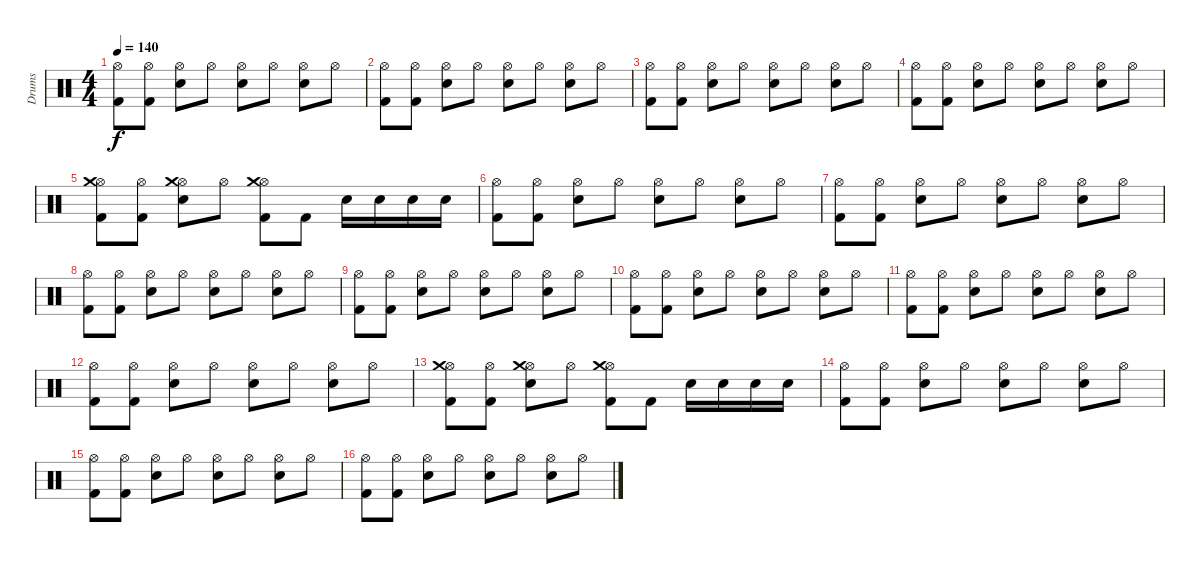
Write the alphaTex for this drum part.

\track ("Drums" "Drums") {instrument percussion}
\staff {score}
\articulation defaults
\ts (4 4)
\tempo 140
\clef neutral
\ks c
("Hi-Hat (open)" "Kick (hit) 2").8{dy f} ("Hi-Hat (open)" "Kick (hit) 2").8 ("Hi-Hat (open)" "Snare (hit) 2").8 "Hi-Hat (open)".8 ("Snare (hit) 2" "Hi-Hat (open)").8 "Hi-Hat (open)".8 ("Snare (hit) 2" "Hi-Hat (open)").8 "Hi-Hat (open)".8 |
("Hi-Hat (open)" "Kick (hit) 2").8 ("Hi-Hat (open)" "Kick (hit) 2").8 ("Hi-Hat (open)" "Snare (hit) 2").8 "Hi-Hat (open)".8 ("Snare (hit) 2" "Hi-Hat (open)").8 "Hi-Hat (open)".8 ("Snare (hit) 2" "Hi-Hat (open)").8 "Hi-Hat (open)".8 |
("Hi-Hat (open)" "Kick (hit) 2").8 ("Hi-Hat (open)" "Kick (hit) 2").8 ("Hi-Hat (open)" "Snare (hit) 2").8 "Hi-Hat (open)".8 ("Snare (hit) 2" "Hi-Hat (open)").8 "Hi-Hat (open)".8 ("Snare (hit) 2" "Hi-Hat (open)").8 "Hi-Hat (open)".8 |
("Hi-Hat (open)" "Kick (hit) 2").8 ("Hi-Hat (open)" "Kick (hit) 2").8 ("Hi-Hat (open)" "Snare (hit) 2").8 "Hi-Hat (open)".8 ("Snare (hit) 2" "Hi-Hat (open)").8 "Hi-Hat (open)".8 ("Snare (hit) 2" "Hi-Hat (open)").8 "Hi-Hat (open)".8 |
("Hi-Hat (open)" "Crash medium (hit)" "Kick (hit) 2").8 ("Hi-Hat (open)" "Kick (hit) 2").8 ("Snare (hit) 2" "Hi-Hat (open)" "Crash medium (hit)").8 "Hi-Hat (open)".8 ("Hi-Hat (open)" "Crash medium (hit)" "Kick (hit) 2").8 "Kick (hit) 2".8 "Snare (hit) 2".16 "Snare (hit) 2".16 "Snare (hit) 2".16 "Snare (hit) 2".16 |
("Hi-Hat (open)" "Kick (hit) 2").8 ("Hi-Hat (open)" "Kick (hit) 2").8 ("Hi-Hat (open)" "Snare (hit) 2").8 "Hi-Hat (open)".8 ("Snare (hit) 2" "Hi-Hat (open)").8 "Hi-Hat (open)".8 ("Snare (hit) 2" "Hi-Hat (open)").8 "Hi-Hat (open)".8 |
("Hi-Hat (open)" "Kick (hit) 2").8 ("Hi-Hat (open)" "Kick (hit) 2").8 ("Hi-Hat (open)" "Snare (hit) 2").8 "Hi-Hat (open)".8 ("Snare (hit) 2" "Hi-Hat (open)").8 "Hi-Hat (open)".8 ("Snare (hit) 2" "Hi-Hat (open)").8 "Hi-Hat (open)".8 |
("Hi-Hat (open)" "Kick (hit) 2").8 ("Hi-Hat (open)" "Kick (hit) 2").8 ("Hi-Hat (open)" "Snare (hit) 2").8 "Hi-Hat (open)".8 ("Snare (hit) 2" "Hi-Hat (open)").8 "Hi-Hat (open)".8 ("Snare (hit) 2" "Hi-Hat (open)").8 "Hi-Hat (open)".8 |
("Hi-Hat (open)" "Kick (hit) 2").8 ("Hi-Hat (open)" "Kick (hit) 2").8 ("Hi-Hat (open)" "Snare (hit) 2").8 "Hi-Hat (open)".8 ("Snare (hit) 2" "Hi-Hat (open)").8 "Hi-Hat (open)".8 ("Snare (hit) 2" "Hi-Hat (open)").8 "Hi-Hat (open)".8 |
("Hi-Hat (open)" "Kick (hit) 2").8 ("Hi-Hat (open)" "Kick (hit) 2").8 ("Hi-Hat (open)" "Snare (hit) 2").8 "Hi-Hat (open)".8 ("Snare (hit) 2" "Hi-Hat (open)").8 "Hi-Hat (open)".8 ("Snare (hit) 2" "Hi-Hat (open)").8 "Hi-Hat (open)".8 |
("Hi-Hat (open)" "Kick (hit) 2").8 ("Hi-Hat (open)" "Kick (hit) 2").8 ("Hi-Hat (open)" "Snare (hit) 2").8 "Hi-Hat (open)".8 ("Snare (hit) 2" "Hi-Hat (open)").8 "Hi-Hat (open)".8 ("Snare (hit) 2" "Hi-Hat (open)").8 "Hi-Hat (open)".8 |
("Hi-Hat (open)" "Kick (hit) 2").8 ("Hi-Hat (open)" "Kick (hit) 2").8 ("Hi-Hat (open)" "Snare (hit) 2").8 "Hi-Hat (open)".8 ("Snare (hit) 2" "Hi-Hat (open)").8 "Hi-Hat (open)".8 ("Snare (hit) 2" "Hi-Hat (open)").8 "Hi-Hat (open)".8 |
("Hi-Hat (open)" "Crash medium (hit)" "Kick (hit) 2").8 ("Hi-Hat (open)" "Kick (hit) 2").8 ("Snare (hit) 2" "Hi-Hat (open)" "Crash medium (hit)").8 "Hi-Hat (open)".8 ("Hi-Hat (open)" "Crash medium (hit)" "Kick (hit) 2").8 "Kick (hit) 2".8 "Snare (hit) 2".16 "Snare (hit) 2".16 "Snare (hit) 2".16 "Snare (hit) 2".16 |
("Hi-Hat (open)" "Kick (hit) 2").8 ("Hi-Hat (open)" "Kick (hit) 2").8 ("Hi-Hat (open)" "Snare (hit) 2").8 "Hi-Hat (open)".8 ("Snare (hit) 2" "Hi-Hat (open)").8 "Hi-Hat (open)".8 ("Snare (hit) 2" "Hi-Hat (open)").8 "Hi-Hat (open)".8 |
("Hi-Hat (open)" "Kick (hit) 2").8 ("Hi-Hat (open)" "Kick (hit) 2").8 ("Hi-Hat (open)" "Snare (hit) 2").8 "Hi-Hat (open)".8 ("Snare (hit) 2" "Hi-Hat (open)").8 "Hi-Hat (open)".8 ("Snare (hit) 2" "Hi-Hat (open)").8 "Hi-Hat (open)".8 |
("Hi-Hat (open)" "Kick (hit) 2").8 ("Hi-Hat (open)" "Kick (hit) 2").8 ("Hi-Hat (open)" "Snare (hit) 2").8 "Hi-Hat (open)".8 ("Snare (hit) 2" "Hi-Hat (open)").8 "Hi-Hat (open)".8 ("Snare (hit) 2" "Hi-Hat (open)").8 "Hi-Hat (open)".8
